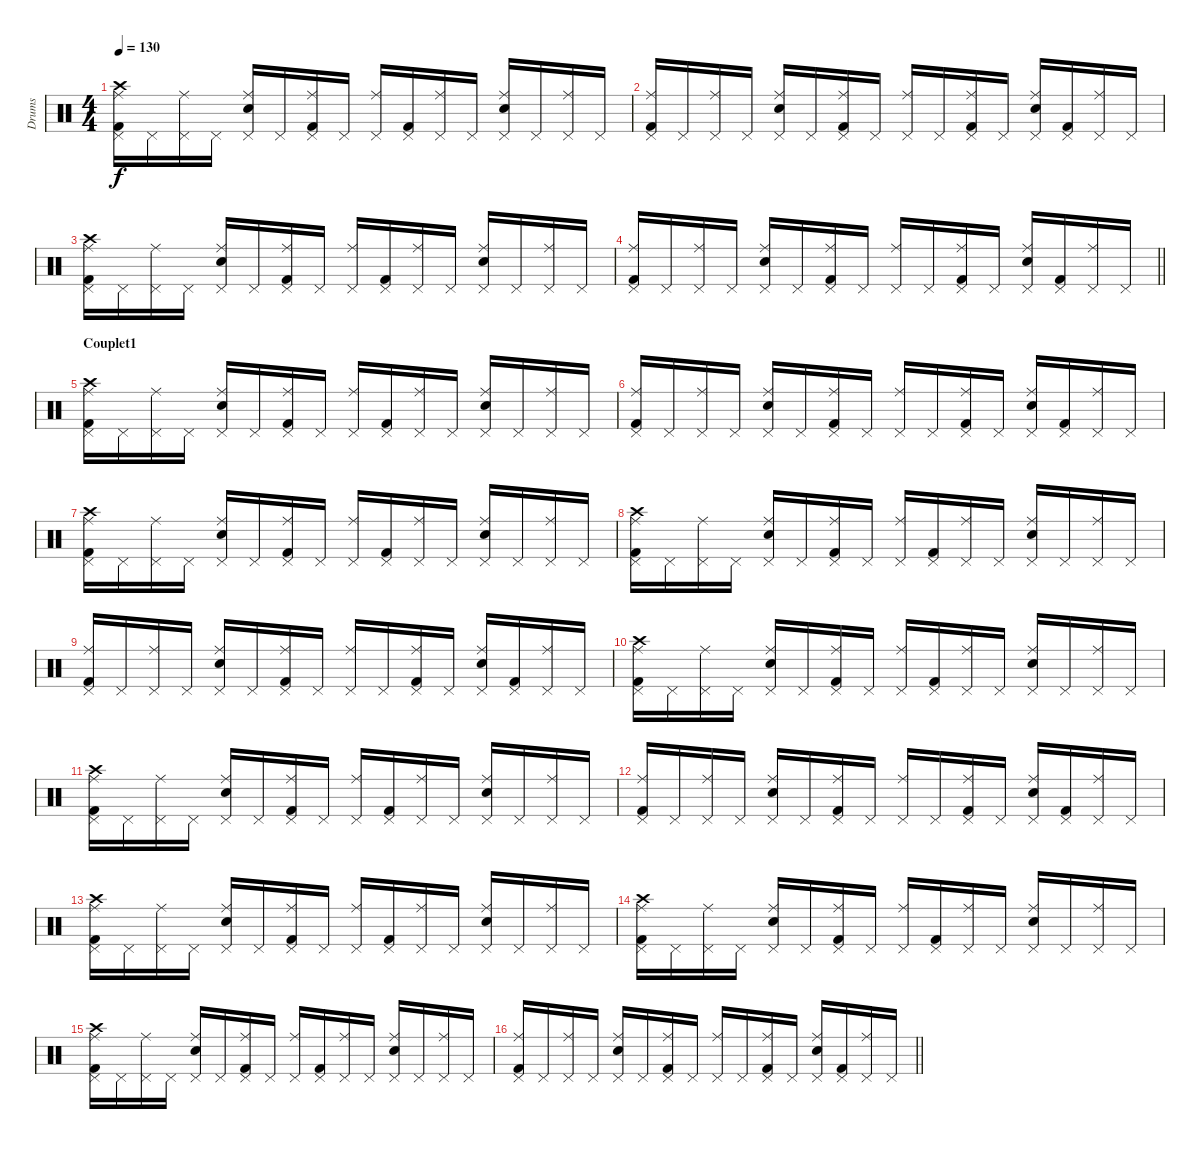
\track ("Drums" "Drums") {instrument percussion}
\staff {score}
\articulation defaults
\ts (4 4)
\tempo 130
\clef neutral
\ks c
("Crash high (hit)" "Pedal Hi-Hat (hit)" "Ride (middle)" "Kick (hit) 2").16{dy f} "Pedal Hi-Hat (hit)".16 ("Pedal Hi-Hat (hit)" "Ride (middle)").16 "Pedal Hi-Hat (hit)".16 ("Pedal Hi-Hat (hit)" "Ride (middle)" "Electric Snare (hit)").16 "Pedal Hi-Hat (hit)".16 ("Pedal Hi-Hat (hit)" "Ride (middle)" "Kick (hit) 2").16 "Pedal Hi-Hat (hit)".16 ("Pedal Hi-Hat (hit)" "Ride (middle)").16 ("Pedal Hi-Hat (hit)" "Kick (hit) 2").16 ("Pedal Hi-Hat (hit)" "Ride (middle)").16 "Pedal Hi-Hat (hit)".16 ("Pedal Hi-Hat (hit)" "Ride (middle)" "Electric Snare (hit)").16 "Pedal Hi-Hat (hit)".16 ("Pedal Hi-Hat (hit)" "Ride (middle)").16 "Pedal Hi-Hat (hit)".16 |
("Ride (middle)" "Pedal Hi-Hat (hit)" "Kick (hit) 2").16 "Pedal Hi-Hat (hit)".16 ("Ride (middle)" "Pedal Hi-Hat (hit)").16 "Pedal Hi-Hat (hit)".16 ("Ride (middle)" "Pedal Hi-Hat (hit)" "Electric Snare (hit)").16 "Pedal Hi-Hat (hit)".16 ("Ride (middle)" "Pedal Hi-Hat (hit)" "Kick (hit) 2").16 "Pedal Hi-Hat (hit)".16 ("Ride (middle)" "Pedal Hi-Hat (hit)").16 "Pedal Hi-Hat (hit)".16 ("Ride (middle)" "Pedal Hi-Hat (hit)" "Kick (hit) 2").16 "Pedal Hi-Hat (hit)".16 ("Ride (middle)" "Pedal Hi-Hat (hit)" "Electric Snare (hit)").16 ("Pedal Hi-Hat (hit)" "Kick (hit) 2").16 ("Ride (middle)" "Pedal Hi-Hat (hit)").16 "Pedal Hi-Hat (hit)".16 |
("Crash high (hit)" "Pedal Hi-Hat (hit)" "Ride (middle)" "Kick (hit) 2").16 "Pedal Hi-Hat (hit)".16 ("Pedal Hi-Hat (hit)" "Ride (middle)").16 "Pedal Hi-Hat (hit)".16 ("Pedal Hi-Hat (hit)" "Ride (middle)" "Electric Snare (hit)").16 "Pedal Hi-Hat (hit)".16 ("Pedal Hi-Hat (hit)" "Ride (middle)" "Kick (hit) 2").16 "Pedal Hi-Hat (hit)".16 ("Pedal Hi-Hat (hit)" "Ride (middle)").16 ("Pedal Hi-Hat (hit)" "Kick (hit) 2").16 ("Pedal Hi-Hat (hit)" "Ride (middle)").16 "Pedal Hi-Hat (hit)".16 ("Pedal Hi-Hat (hit)" "Ride (middle)" "Electric Snare (hit)").16 "Pedal Hi-Hat (hit)".16 ("Pedal Hi-Hat (hit)" "Ride (middle)").16 "Pedal Hi-Hat (hit)".16 |
\barLineRight lightlight
("Ride (middle)" "Pedal Hi-Hat (hit)" "Kick (hit) 2").16 "Pedal Hi-Hat (hit)".16 ("Ride (middle)" "Pedal Hi-Hat (hit)").16 "Pedal Hi-Hat (hit)".16 ("Ride (middle)" "Pedal Hi-Hat (hit)" "Electric Snare (hit)").16 "Pedal Hi-Hat (hit)".16 ("Ride (middle)" "Pedal Hi-Hat (hit)" "Kick (hit) 2").16 "Pedal Hi-Hat (hit)".16 ("Ride (middle)" "Pedal Hi-Hat (hit)").16 "Pedal Hi-Hat (hit)".16 ("Ride (middle)" "Pedal Hi-Hat (hit)" "Kick (hit) 2").16 "Pedal Hi-Hat (hit)".16 ("Ride (middle)" "Pedal Hi-Hat (hit)" "Electric Snare (hit)").16 ("Pedal Hi-Hat (hit)" "Kick (hit) 2").16 ("Ride (middle)" "Pedal Hi-Hat (hit)").16 "Pedal Hi-Hat (hit)".16 |
\section ("" "Couplet1")
("Crash high (hit)" "Pedal Hi-Hat (hit)" "Ride (middle)" "Kick (hit) 2").16 "Pedal Hi-Hat (hit)".16 ("Pedal Hi-Hat (hit)" "Ride (middle)").16 "Pedal Hi-Hat (hit)".16 ("Pedal Hi-Hat (hit)" "Ride (middle)" "Electric Snare (hit)").16 "Pedal Hi-Hat (hit)".16 ("Pedal Hi-Hat (hit)" "Ride (middle)" "Kick (hit) 2").16 "Pedal Hi-Hat (hit)".16 ("Pedal Hi-Hat (hit)" "Ride (middle)").16 ("Pedal Hi-Hat (hit)" "Kick (hit) 2").16 ("Pedal Hi-Hat (hit)" "Ride (middle)").16 "Pedal Hi-Hat (hit)".16 ("Pedal Hi-Hat (hit)" "Ride (middle)" "Electric Snare (hit)").16 "Pedal Hi-Hat (hit)".16 ("Pedal Hi-Hat (hit)" "Ride (middle)").16 "Pedal Hi-Hat (hit)".16 |
("Ride (middle)" "Pedal Hi-Hat (hit)" "Kick (hit) 2").16 "Pedal Hi-Hat (hit)".16 ("Ride (middle)" "Pedal Hi-Hat (hit)").16 "Pedal Hi-Hat (hit)".16 ("Ride (middle)" "Pedal Hi-Hat (hit)" "Electric Snare (hit)").16 "Pedal Hi-Hat (hit)".16 ("Ride (middle)" "Pedal Hi-Hat (hit)" "Kick (hit) 2").16 "Pedal Hi-Hat (hit)".16 ("Ride (middle)" "Pedal Hi-Hat (hit)").16 "Pedal Hi-Hat (hit)".16 ("Ride (middle)" "Pedal Hi-Hat (hit)" "Kick (hit) 2").16 "Pedal Hi-Hat (hit)".16 ("Ride (middle)" "Pedal Hi-Hat (hit)" "Electric Snare (hit)").16 ("Pedal Hi-Hat (hit)" "Kick (hit) 2").16 ("Ride (middle)" "Pedal Hi-Hat (hit)").16 "Pedal Hi-Hat (hit)".16 |
("Crash high (hit)" "Pedal Hi-Hat (hit)" "Ride (middle)" "Kick (hit) 2").16 "Pedal Hi-Hat (hit)".16 ("Pedal Hi-Hat (hit)" "Ride (middle)").16 "Pedal Hi-Hat (hit)".16 ("Pedal Hi-Hat (hit)" "Ride (middle)" "Electric Snare (hit)").16 "Pedal Hi-Hat (hit)".16 ("Pedal Hi-Hat (hit)" "Ride (middle)" "Kick (hit) 2").16 "Pedal Hi-Hat (hit)".16 ("Pedal Hi-Hat (hit)" "Ride (middle)").16 ("Pedal Hi-Hat (hit)" "Kick (hit) 2").16 ("Pedal Hi-Hat (hit)" "Ride (middle)").16 "Pedal Hi-Hat (hit)".16 ("Pedal Hi-Hat (hit)" "Ride (middle)" "Electric Snare (hit)").16 "Pedal Hi-Hat (hit)".16 ("Pedal Hi-Hat (hit)" "Ride (middle)").16 "Pedal Hi-Hat (hit)".16 |
("Crash high (hit)" "Pedal Hi-Hat (hit)" "Ride (middle)" "Kick (hit) 2").16 "Pedal Hi-Hat (hit)".16 ("Pedal Hi-Hat (hit)" "Ride (middle)").16 "Pedal Hi-Hat (hit)".16 ("Pedal Hi-Hat (hit)" "Ride (middle)" "Electric Snare (hit)").16 "Pedal Hi-Hat (hit)".16 ("Pedal Hi-Hat (hit)" "Ride (middle)" "Kick (hit) 2").16 "Pedal Hi-Hat (hit)".16 ("Pedal Hi-Hat (hit)" "Ride (middle)").16 ("Pedal Hi-Hat (hit)" "Kick (hit) 2").16 ("Pedal Hi-Hat (hit)" "Ride (middle)").16 "Pedal Hi-Hat (hit)".16 ("Pedal Hi-Hat (hit)" "Ride (middle)" "Electric Snare (hit)").16 "Pedal Hi-Hat (hit)".16 ("Pedal Hi-Hat (hit)" "Ride (middle)").16 "Pedal Hi-Hat (hit)".16 |
("Ride (middle)" "Pedal Hi-Hat (hit)" "Kick (hit) 2").16 "Pedal Hi-Hat (hit)".16 ("Ride (middle)" "Pedal Hi-Hat (hit)").16 "Pedal Hi-Hat (hit)".16 ("Ride (middle)" "Pedal Hi-Hat (hit)" "Electric Snare (hit)").16 "Pedal Hi-Hat (hit)".16 ("Ride (middle)" "Pedal Hi-Hat (hit)" "Kick (hit) 2").16 "Pedal Hi-Hat (hit)".16 ("Ride (middle)" "Pedal Hi-Hat (hit)").16 "Pedal Hi-Hat (hit)".16 ("Ride (middle)" "Pedal Hi-Hat (hit)" "Kick (hit) 2").16 "Pedal Hi-Hat (hit)".16 ("Ride (middle)" "Pedal Hi-Hat (hit)" "Electric Snare (hit)").16 ("Pedal Hi-Hat (hit)" "Kick (hit) 2").16 ("Ride (middle)" "Pedal Hi-Hat (hit)").16 "Pedal Hi-Hat (hit)".16 |
("Crash high (hit)" "Pedal Hi-Hat (hit)" "Ride (middle)" "Kick (hit) 2").16 "Pedal Hi-Hat (hit)".16 ("Pedal Hi-Hat (hit)" "Ride (middle)").16 "Pedal Hi-Hat (hit)".16 ("Pedal Hi-Hat (hit)" "Ride (middle)" "Electric Snare (hit)").16 "Pedal Hi-Hat (hit)".16 ("Pedal Hi-Hat (hit)" "Ride (middle)" "Kick (hit) 2").16 "Pedal Hi-Hat (hit)".16 ("Pedal Hi-Hat (hit)" "Ride (middle)").16 ("Pedal Hi-Hat (hit)" "Kick (hit) 2").16 ("Pedal Hi-Hat (hit)" "Ride (middle)").16 "Pedal Hi-Hat (hit)".16 ("Pedal Hi-Hat (hit)" "Ride (middle)" "Electric Snare (hit)").16 "Pedal Hi-Hat (hit)".16 ("Pedal Hi-Hat (hit)" "Ride (middle)").16 "Pedal Hi-Hat (hit)".16 |
("Crash high (hit)" "Pedal Hi-Hat (hit)" "Ride (middle)" "Kick (hit) 2").16 "Pedal Hi-Hat (hit)".16 ("Pedal Hi-Hat (hit)" "Ride (middle)").16 "Pedal Hi-Hat (hit)".16 ("Pedal Hi-Hat (hit)" "Ride (middle)" "Electric Snare (hit)").16 "Pedal Hi-Hat (hit)".16 ("Pedal Hi-Hat (hit)" "Ride (middle)" "Kick (hit) 2").16 "Pedal Hi-Hat (hit)".16 ("Pedal Hi-Hat (hit)" "Ride (middle)").16 ("Pedal Hi-Hat (hit)" "Kick (hit) 2").16 ("Pedal Hi-Hat (hit)" "Ride (middle)").16 "Pedal Hi-Hat (hit)".16 ("Pedal Hi-Hat (hit)" "Ride (middle)" "Electric Snare (hit)").16 "Pedal Hi-Hat (hit)".16 ("Pedal Hi-Hat (hit)" "Ride (middle)").16 "Pedal Hi-Hat (hit)".16 |
("Ride (middle)" "Pedal Hi-Hat (hit)" "Kick (hit) 2").16 "Pedal Hi-Hat (hit)".16 ("Ride (middle)" "Pedal Hi-Hat (hit)").16 "Pedal Hi-Hat (hit)".16 ("Ride (middle)" "Pedal Hi-Hat (hit)" "Electric Snare (hit)").16 "Pedal Hi-Hat (hit)".16 ("Ride (middle)" "Pedal Hi-Hat (hit)" "Kick (hit) 2").16 "Pedal Hi-Hat (hit)".16 ("Ride (middle)" "Pedal Hi-Hat (hit)").16 "Pedal Hi-Hat (hit)".16 ("Ride (middle)" "Pedal Hi-Hat (hit)" "Kick (hit) 2").16 "Pedal Hi-Hat (hit)".16 ("Ride (middle)" "Pedal Hi-Hat (hit)" "Electric Snare (hit)").16 ("Pedal Hi-Hat (hit)" "Kick (hit) 2").16 ("Ride (middle)" "Pedal Hi-Hat (hit)").16 "Pedal Hi-Hat (hit)".16 |
("Crash high (hit)" "Pedal Hi-Hat (hit)" "Ride (middle)" "Kick (hit) 2").16 "Pedal Hi-Hat (hit)".16 ("Pedal Hi-Hat (hit)" "Ride (middle)").16 "Pedal Hi-Hat (hit)".16 ("Pedal Hi-Hat (hit)" "Ride (middle)" "Electric Snare (hit)").16 "Pedal Hi-Hat (hit)".16 ("Pedal Hi-Hat (hit)" "Ride (middle)" "Kick (hit) 2").16 "Pedal Hi-Hat (hit)".16 ("Pedal Hi-Hat (hit)" "Ride (middle)").16 ("Pedal Hi-Hat (hit)" "Kick (hit) 2").16 ("Pedal Hi-Hat (hit)" "Ride (middle)").16 "Pedal Hi-Hat (hit)".16 ("Pedal Hi-Hat (hit)" "Ride (middle)" "Electric Snare (hit)").16 "Pedal Hi-Hat (hit)".16 ("Pedal Hi-Hat (hit)" "Ride (middle)").16 "Pedal Hi-Hat (hit)".16 |
("Crash high (hit)" "Pedal Hi-Hat (hit)" "Ride (middle)" "Kick (hit) 2").16 "Pedal Hi-Hat (hit)".16 ("Pedal Hi-Hat (hit)" "Ride (middle)").16 "Pedal Hi-Hat (hit)".16 ("Pedal Hi-Hat (hit)" "Ride (middle)" "Electric Snare (hit)").16 "Pedal Hi-Hat (hit)".16 ("Pedal Hi-Hat (hit)" "Ride (middle)" "Kick (hit) 2").16 "Pedal Hi-Hat (hit)".16 ("Pedal Hi-Hat (hit)" "Ride (middle)").16 ("Pedal Hi-Hat (hit)" "Kick (hit) 2").16 ("Pedal Hi-Hat (hit)" "Ride (middle)").16 "Pedal Hi-Hat (hit)".16 ("Pedal Hi-Hat (hit)" "Ride (middle)" "Electric Snare (hit)").16 "Pedal Hi-Hat (hit)".16 ("Pedal Hi-Hat (hit)" "Ride (middle)").16 "Pedal Hi-Hat (hit)".16 |
("Crash high (hit)" "Pedal Hi-Hat (hit)" "Ride (middle)" "Kick (hit) 2").16 "Pedal Hi-Hat (hit)".16 ("Pedal Hi-Hat (hit)" "Ride (middle)").16 "Pedal Hi-Hat (hit)".16 ("Pedal Hi-Hat (hit)" "Ride (middle)" "Electric Snare (hit)").16 "Pedal Hi-Hat (hit)".16 ("Pedal Hi-Hat (hit)" "Ride (middle)" "Kick (hit) 2").16 "Pedal Hi-Hat (hit)".16 ("Pedal Hi-Hat (hit)" "Ride (middle)").16 ("Pedal Hi-Hat (hit)" "Kick (hit) 2").16 ("Pedal Hi-Hat (hit)" "Ride (middle)").16 "Pedal Hi-Hat (hit)".16 ("Pedal Hi-Hat (hit)" "Ride (middle)" "Electric Snare (hit)").16 "Pedal Hi-Hat (hit)".16 ("Pedal Hi-Hat (hit)" "Ride (middle)").16 "Pedal Hi-Hat (hit)".16 |
\barLineRight lightlight
("Ride (middle)" "Pedal Hi-Hat (hit)" "Kick (hit) 2").16 "Pedal Hi-Hat (hit)".16 ("Ride (middle)" "Pedal Hi-Hat (hit)").16 "Pedal Hi-Hat (hit)".16 ("Ride (middle)" "Pedal Hi-Hat (hit)" "Electric Snare (hit)").16 "Pedal Hi-Hat (hit)".16 ("Ride (middle)" "Pedal Hi-Hat (hit)" "Kick (hit) 2").16 "Pedal Hi-Hat (hit)".16 ("Ride (middle)" "Pedal Hi-Hat (hit)").16 "Pedal Hi-Hat (hit)".16 ("Ride (middle)" "Pedal Hi-Hat (hit)" "Kick (hit) 2").16 "Pedal Hi-Hat (hit)".16 ("Ride (middle)" "Pedal Hi-Hat (hit)" "Electric Snare (hit)").16 ("Pedal Hi-Hat (hit)" "Kick (hit) 2").16 ("Ride (middle)" "Pedal Hi-Hat (hit)").16 "Pedal Hi-Hat (hit)".16
